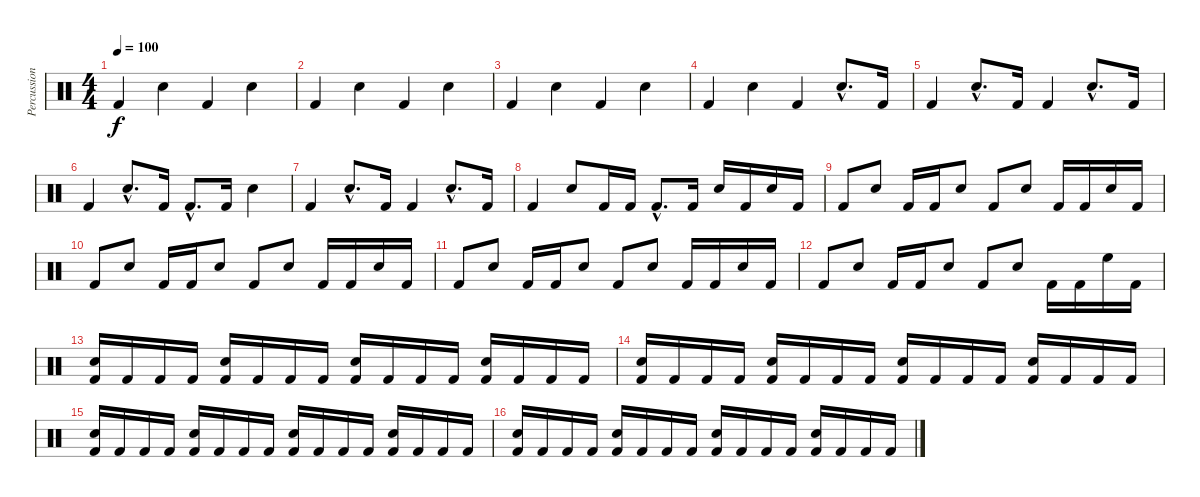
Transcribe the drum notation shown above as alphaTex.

\track ("Percussion" "Percussion") {instrument percussion}
\staff {score}
\articulation defaults
\ts (4 4)
\tempo 100
\clef neutral
\ks c "Kick (hit) 2".4{dy f} "Snare (hit) 2".4 "Kick (hit) 2".4 "Snare (hit) 2".4
|
"Kick (hit) 2".4 "Snare (hit) 2".4 "Kick (hit) 2".4 "Snare (hit) 2".4 |
"Kick (hit) 2".4 "Snare (hit) 2".4 "Kick (hit) 2".4 "Snare (hit) 2".4 |
"Kick (hit) 2".4 "Snare (hit) 2".4 "Kick (hit) 2".4 "Snare (hit) 2"{hac}.8{d} "Kick (hit) 2".16 |
"Kick (hit) 2".4 "Snare (hit) 2"{hac}.8{d} "Kick (hit) 2".16 "Kick (hit) 2".4 "Snare (hit) 2"{hac}.8{d} "Kick (hit) 2".16 |
"Kick (hit) 2".4 "Snare (hit) 2"{hac}.8{d} "Kick (hit) 2".16 "Kick (hit) 2"{hac}.8{d} "Kick (hit) 2".16 "Snare (hit) 2".4 |
"Kick (hit) 2".4 "Snare (hit) 2"{hac}.8{d} "Kick (hit) 2".16 "Kick (hit) 2".4 "Snare (hit) 2"{hac}.8{d} "Kick (hit) 2".16 |
"Kick (hit) 2".4 "Snare (hit) 2".8 "Kick (hit) 2".16 "Kick (hit) 2".16 "Kick (hit) 2"{hac}.8{d} "Kick (hit) 2".16 "Snare (hit) 2".16 "Kick (hit) 2".16 "Snare (hit) 2".16 "Kick (hit) 2".16 |
"Kick (hit) 2".8 "Snare (hit) 2".8 "Kick (hit) 2".16 "Kick (hit) 2".16 "Snare (hit) 2".8 "Kick (hit) 2".8 "Snare (hit) 2".8 "Kick (hit) 2".16 "Kick (hit) 2".16 "Snare (hit) 2".16 "Kick (hit) 2".16 |
"Kick (hit) 2".8 "Snare (hit) 2".8 "Kick (hit) 2".16 "Kick (hit) 2".16 "Snare (hit) 2".8 "Kick (hit) 2".8 "Snare (hit) 2".8 "Kick (hit) 2".16 "Kick (hit) 2".16 "Snare (hit) 2".16 "Kick (hit) 2".16 |
"Kick (hit) 2".8 "Snare (hit) 2".8 "Kick (hit) 2".16 "Kick (hit) 2".16 "Snare (hit) 2".8 "Kick (hit) 2".8 "Snare (hit) 2".8 "Kick (hit) 2".16 "Kick (hit) 2".16 "Snare (hit) 2".16 "Kick (hit) 2".16 |
"Kick (hit) 2".8 "Snare (hit) 2".8 "Kick (hit) 2".16 "Kick (hit) 2".16 "Snare (hit) 2".8 "Kick (hit) 2".8 "Snare (hit) 2".8 "Kick (hit) 2".16 "Kick (hit) 2".16 "High Floor Tom (hit)".16 "Kick (hit) 2".16 |
("Snare (hit) 2" "Kick (hit) 2").16 "Kick (hit) 2".16 "Kick (hit) 2".16 "Kick (hit) 2".16 ("Snare (hit) 2" "Kick (hit) 2").16 "Kick (hit) 2".16 "Kick (hit) 2".16 "Kick (hit) 2".16 ("Snare (hit) 2" "Kick (hit) 2").16 "Kick (hit) 2".16 "Kick (hit) 2".16 "Kick (hit) 2".16 ("Snare (hit) 2" "Kick (hit) 2").16 "Kick (hit) 2".16 "Kick (hit) 2".16 "Kick (hit) 2".16 |
("Snare (hit) 2" "Kick (hit) 2").16 "Kick (hit) 2".16 "Kick (hit) 2".16 "Kick (hit) 2".16 ("Snare (hit) 2" "Kick (hit) 2").16 "Kick (hit) 2".16 "Kick (hit) 2".16 "Kick (hit) 2".16 ("Snare (hit) 2" "Kick (hit) 2").16 "Kick (hit) 2".16 "Kick (hit) 2".16 "Kick (hit) 2".16 ("Snare (hit) 2" "Kick (hit) 2").16 "Kick (hit) 2".16 "Kick (hit) 2".16 "Kick (hit) 2".16 |
("Snare (hit) 2" "Kick (hit) 2").16 "Kick (hit) 2".16 "Kick (hit) 2".16 "Kick (hit) 2".16 ("Snare (hit) 2" "Kick (hit) 2").16 "Kick (hit) 2".16 "Kick (hit) 2".16 "Kick (hit) 2".16 ("Snare (hit) 2" "Kick (hit) 2").16 "Kick (hit) 2".16 "Kick (hit) 2".16 "Kick (hit) 2".16 ("Snare (hit) 2" "Kick (hit) 2").16 "Kick (hit) 2".16 "Kick (hit) 2".16 "Kick (hit) 2".16 |
("Snare (hit) 2" "Kick (hit) 2").16 "Kick (hit) 2".16 "Kick (hit) 2".16 "Kick (hit) 2".16 ("Snare (hit) 2" "Kick (hit) 2").16 "Kick (hit) 2".16 "Kick (hit) 2".16 "Kick (hit) 2".16 ("Snare (hit) 2" "Kick (hit) 2").16 "Kick (hit) 2".16 "Kick (hit) 2".16 "Kick (hit) 2".16 ("Snare (hit) 2" "Kick (hit) 2").16 "Kick (hit) 2".16 "Kick (hit) 2".16 "Kick (hit) 2".16
